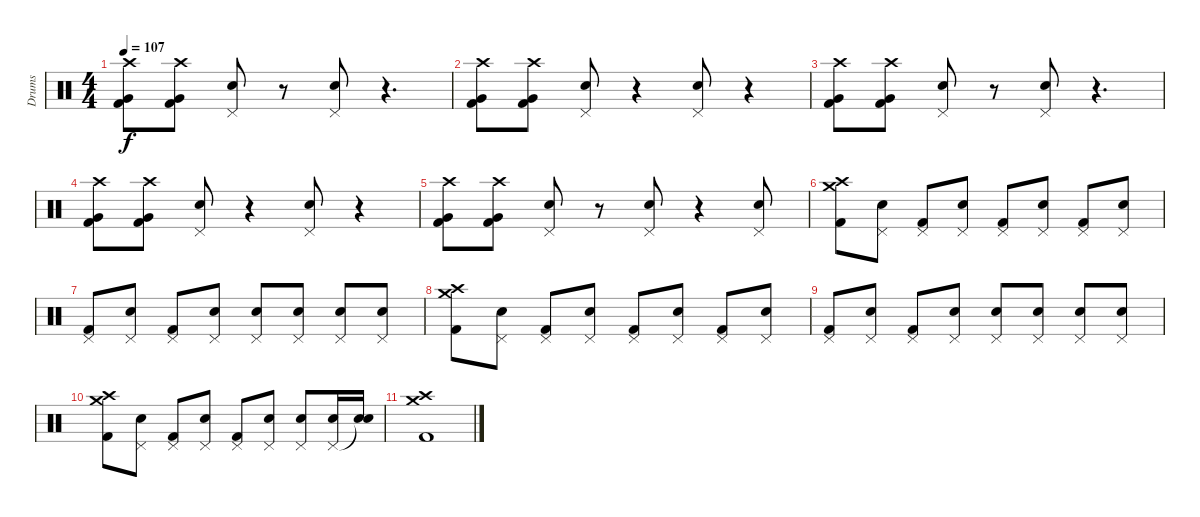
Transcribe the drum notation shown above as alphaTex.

\track ("Drums" "Drums") {instrument percussion}
\staff {score}
\articulation defaults
\ts (4 4)
\tempo 107
\clef neutral
\ks c
("Crash high (hit)" "Very Low Tom (hit)" "Kick (hit) 2").8{dy f} ("Crash high (hit)" "Very Low Tom (hit)" "Kick (hit) 2").8 ("Pedal Hi-Hat (hit)" "Electric Snare (hit)").8 r.8 ("Pedal Hi-Hat (hit)" "Electric Snare (hit)").8 r.4{d} |
("Crash high (hit)" "Very Low Tom (hit)" "Kick (hit) 2").8 ("Crash high (hit)" "Very Low Tom (hit)" "Kick (hit) 2").8 ("Pedal Hi-Hat (hit)" "Electric Snare (hit)").8 r.4 ("Pedal Hi-Hat (hit)" "Electric Snare (hit)").8 r.4 |
("Crash high (hit)" "Very Low Tom (hit)" "Kick (hit) 2").8 ("Crash high (hit)" "Very Low Tom (hit)" "Kick (hit) 2").8 ("Pedal Hi-Hat (hit)" "Electric Snare (hit)").8 r.8 ("Pedal Hi-Hat (hit)" "Electric Snare (hit)").8 r.4{d} |
("Crash high (hit)" "Very Low Tom (hit)" "Kick (hit) 2").8 ("Crash high (hit)" "Very Low Tom (hit)" "Kick (hit) 2").8 ("Pedal Hi-Hat (hit)" "Electric Snare (hit)").8 r.4 ("Pedal Hi-Hat (hit)" "Electric Snare (hit)").8 r.4 |
("Crash high (hit)" "Very Low Tom (hit)" "Kick (hit) 2").8 ("Crash high (hit)" "Very Low Tom (hit)" "Kick (hit) 2").8 ("Pedal Hi-Hat (hit)" "Electric Snare (hit)").8 r.8 ("Pedal Hi-Hat (hit)" "Electric Snare (hit)").8 r.4 ("Pedal Hi-Hat (hit)" "Electric Snare (hit)").8 |
("Crash high (hit)" "Crash medium (hit)" "Kick (hit) 2").8 ("Pedal Hi-Hat (hit)" "Electric Snare (hit)").8 ("Pedal Hi-Hat (hit)" "Kick (hit) 2").8 ("Pedal Hi-Hat (hit)" "Electric Snare (hit)").8 ("Pedal Hi-Hat (hit)" "Kick (hit) 2").8 ("Pedal Hi-Hat (hit)" "Electric Snare (hit)").8 ("Pedal Hi-Hat (hit)" "Kick (hit) 2").8 ("Pedal Hi-Hat (hit)" "Electric Snare (hit)").8 |
("Pedal Hi-Hat (hit)" "Kick (hit) 2").8 ("Pedal Hi-Hat (hit)" "Electric Snare (hit)").8 ("Pedal Hi-Hat (hit)" "Kick (hit) 2").8 ("Pedal Hi-Hat (hit)" "Electric Snare (hit)").8 ("Pedal Hi-Hat (hit)" "Electric Snare (hit)").8 ("Pedal Hi-Hat (hit)" "Electric Snare (hit)").8 ("Pedal Hi-Hat (hit)" "Electric Snare (hit)").8 ("Pedal Hi-Hat (hit)" "Electric Snare (hit)").8 |
("Crash high (hit)" "Crash medium (hit)" "Kick (hit) 2").8 ("Pedal Hi-Hat (hit)" "Electric Snare (hit)").8 ("Pedal Hi-Hat (hit)" "Kick (hit) 2").8 ("Pedal Hi-Hat (hit)" "Electric Snare (hit)").8 ("Pedal Hi-Hat (hit)" "Kick (hit) 2").8 ("Pedal Hi-Hat (hit)" "Electric Snare (hit)").8 ("Pedal Hi-Hat (hit)" "Kick (hit) 2").8 ("Pedal Hi-Hat (hit)" "Electric Snare (hit)").8 |
("Pedal Hi-Hat (hit)" "Kick (hit) 2").8 ("Pedal Hi-Hat (hit)" "Electric Snare (hit)").8 ("Pedal Hi-Hat (hit)" "Kick (hit) 2").8 ("Pedal Hi-Hat (hit)" "Electric Snare (hit)").8 ("Pedal Hi-Hat (hit)" "Electric Snare (hit)").8 ("Pedal Hi-Hat (hit)" "Electric Snare (hit)").8 ("Pedal Hi-Hat (hit)" "Electric Snare (hit)").8 ("Pedal Hi-Hat (hit)" "Electric Snare (hit)").8 |
("Crash high (hit)" "Crash medium (hit)" "Kick (hit) 2").8 ("Pedal Hi-Hat (hit)" "Electric Snare (hit)").8 ("Pedal Hi-Hat (hit)" "Kick (hit) 2").8 ("Pedal Hi-Hat (hit)" "Electric Snare (hit)").8 ("Pedal Hi-Hat (hit)" "Kick (hit) 2").8 ("Pedal Hi-Hat (hit)" "Electric Snare (hit)").8 ("Pedal Hi-Hat (hit)" "Electric Snare (hit)").8 ("Pedal Hi-Hat (hit)" "Electric Snare (hit)").16 ("Snare (hit)"{t} "Electric Snare (hit)").16 |
("Crash high (hit)" "Crash medium (hit)" "Kick (hit) 2").1
